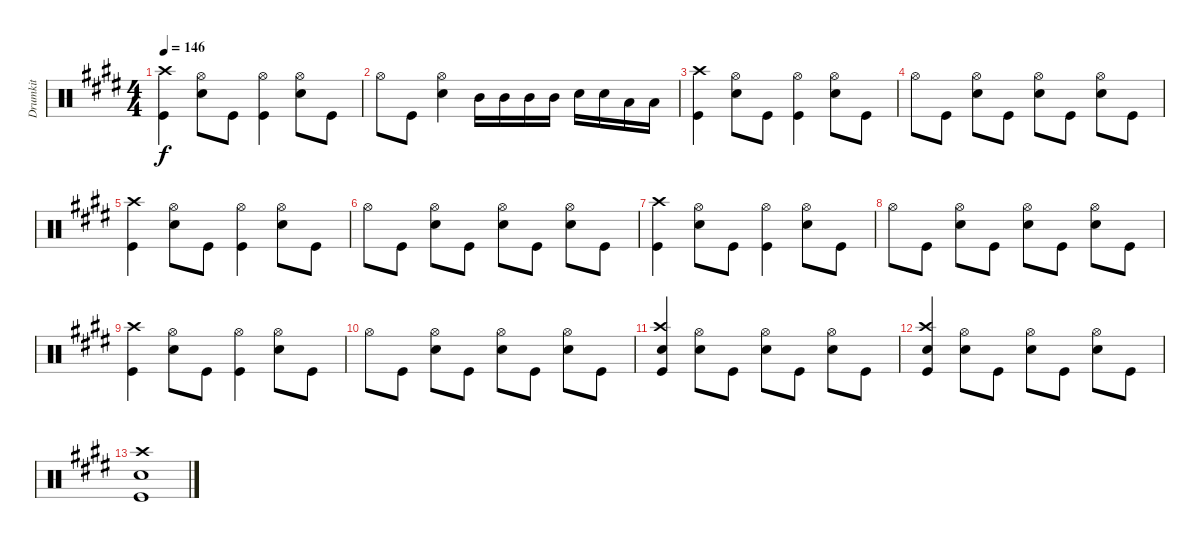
\track ("Drumkit" "Drumkit") {instrument percussion}
\staff {score}
\articulation defaults
\ts (4 4)
\tempo 146
\clef neutral
\ks e
("Kick (hit)" "Crash high (hit)").4{dy f} ("Snare (hit) 2" "Hi-Hat (open)").8 "Kick (hit)".8 ("Kick (hit)" "Hi-Hat (open)").4 ("Snare (hit) 2" "Hi-Hat (open)").8 "Kick (hit)".8 |
"Hi-Hat (open)".8 "Kick (hit)".8 ("Snare (hit) 2" "Hi-Hat (open)").4 "Mid Tom (hit)".16 "Mid Tom (hit)".16 "Mid Tom (hit)".16 "Mid Tom (hit)".16 "Snare (hit) 2".16 "Snare (hit) 2".16 "Low Floor Tom (hit)".16 "Low Floor Tom (hit)".16 |
("Kick (hit)" "Crash high (hit)").4 ("Snare (hit) 2" "Hi-Hat (open)").8 "Kick (hit)".8 ("Kick (hit)" "Hi-Hat (open)").4 ("Snare (hit) 2" "Hi-Hat (open)").8 "Kick (hit)".8 |
"Hi-Hat (open)".8 "Kick (hit)".8 ("Snare (hit) 2" "Hi-Hat (open)").8 "Kick (hit)".8 ("Snare (hit) 2" "Hi-Hat (open)").8 "Kick (hit)".8 ("Snare (hit) 2" "Hi-Hat (open)").8 "Kick (hit)".8 |
("Kick (hit)" "Crash high (hit)").4 ("Snare (hit) 2" "Hi-Hat (open)").8 "Kick (hit)".8 ("Kick (hit)" "Hi-Hat (open)").4 ("Snare (hit) 2" "Hi-Hat (open)").8 "Kick (hit)".8 |
"Hi-Hat (open)".8 "Kick (hit)".8 ("Snare (hit) 2" "Hi-Hat (open)").8 "Kick (hit)".8 ("Snare (hit) 2" "Hi-Hat (open)").8 "Kick (hit)".8 ("Snare (hit) 2" "Hi-Hat (open)").8 "Kick (hit)".8 |
("Kick (hit)" "Crash high (hit)").4 ("Snare (hit) 2" "Hi-Hat (open)").8 "Kick (hit)".8 ("Kick (hit)" "Hi-Hat (open)").4 ("Snare (hit) 2" "Hi-Hat (open)").8 "Kick (hit)".8 |
"Hi-Hat (open)".8 "Kick (hit)".8 ("Snare (hit) 2" "Hi-Hat (open)").8 "Kick (hit)".8 ("Snare (hit) 2" "Hi-Hat (open)").8 "Kick (hit)".8 ("Snare (hit) 2" "Hi-Hat (open)").8 "Kick (hit)".8 |
("Kick (hit)" "Crash high (hit)").4 ("Snare (hit) 2" "Hi-Hat (open)").8 "Kick (hit)".8 ("Kick (hit)" "Hi-Hat (open)").4 ("Snare (hit) 2" "Hi-Hat (open)").8 "Kick (hit)".8 |
"Hi-Hat (open)".8 "Kick (hit)".8 ("Snare (hit) 2" "Hi-Hat (open)").8 "Kick (hit)".8 ("Snare (hit) 2" "Hi-Hat (open)").8 "Kick (hit)".8 ("Snare (hit) 2" "Hi-Hat (open)").8 "Kick (hit)".8 |
("Kick (hit)" "Snare (hit) 2" "Crash high (hit)").4 ("Snare (hit) 2" "Hi-Hat (open)").8 "Kick (hit)".8 ("Snare (hit) 2" "Hi-Hat (open)").8 "Kick (hit)".8 ("Snare (hit) 2" "Hi-Hat (open)").8 "Kick (hit)".8 |
("Kick (hit)" "Snare (hit) 2" "Crash high (hit)").4 ("Snare (hit) 2" "Hi-Hat (open)").8 "Kick (hit)".8 ("Snare (hit) 2" "Hi-Hat (open)").8 "Kick (hit)".8 ("Snare (hit) 2" "Hi-Hat (open)").8 "Kick (hit)".8 |
("Kick (hit)" "Snare (hit) 2" "Crash high (hit)").1
